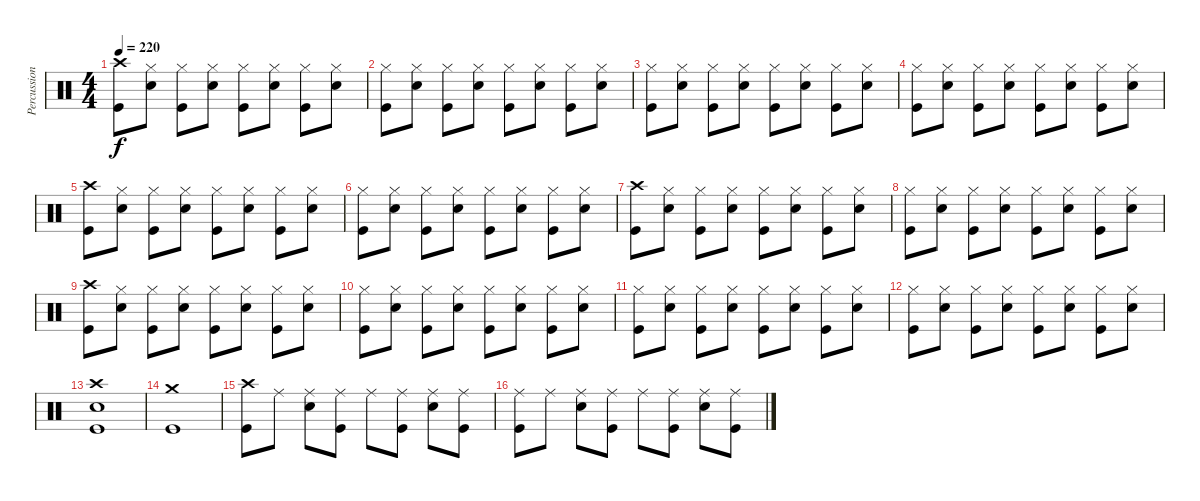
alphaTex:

\track ("Percussions" "Percussion") {instrument percussion}
\staff {score}
\articulation defaults
\ts (4 4)
\tempo 220
\clef neutral
\ks c
("Crash high (hit)" "Kick (hit)").8{dy f} ("Hi-Hat (closed)" "Electric Snare (hit)").8 ("Hi-Hat (closed)" "Kick (hit)").8 ("Hi-Hat (closed)" "Electric Snare (hit)").8 ("Hi-Hat (closed)" "Kick (hit)").8 ("Hi-Hat (closed)" "Electric Snare (hit)").8 ("Hi-Hat (closed)" "Kick (hit)").8 ("Hi-Hat (closed)" "Electric Snare (hit)").8 |
("Hi-Hat (closed)" "Kick (hit)").8 ("Hi-Hat (closed)" "Electric Snare (hit)").8 ("Hi-Hat (closed)" "Kick (hit)").8 ("Hi-Hat (closed)" "Electric Snare (hit)").8 ("Hi-Hat (closed)" "Kick (hit)").8 ("Hi-Hat (closed)" "Electric Snare (hit)").8 ("Hi-Hat (closed)" "Kick (hit)").8 ("Hi-Hat (closed)" "Electric Snare (hit)").8 |
("Hi-Hat (closed)" "Kick (hit)").8 ("Hi-Hat (closed)" "Electric Snare (hit)").8 ("Hi-Hat (closed)" "Kick (hit)").8 ("Hi-Hat (closed)" "Electric Snare (hit)").8 ("Hi-Hat (closed)" "Kick (hit)").8 ("Hi-Hat (closed)" "Electric Snare (hit)").8 ("Hi-Hat (closed)" "Kick (hit)").8 ("Hi-Hat (closed)" "Electric Snare (hit)").8 |
("Hi-Hat (closed)" "Kick (hit)").8 ("Hi-Hat (closed)" "Electric Snare (hit)").8 ("Hi-Hat (closed)" "Kick (hit)").8 ("Hi-Hat (closed)" "Electric Snare (hit)").8 ("Hi-Hat (closed)" "Kick (hit)").8 ("Hi-Hat (closed)" "Electric Snare (hit)").8 ("Hi-Hat (closed)" "Kick (hit)").8 ("Hi-Hat (closed)" "Electric Snare (hit)").8 |
("Crash high (hit)" "Kick (hit)").8 ("Hi-Hat (closed)" "Electric Snare (hit)").8 ("Hi-Hat (closed)" "Kick (hit)").8 ("Hi-Hat (closed)" "Electric Snare (hit)").8 ("Hi-Hat (closed)" "Kick (hit)").8 ("Hi-Hat (closed)" "Electric Snare (hit)").8 ("Hi-Hat (closed)" "Kick (hit)").8 ("Hi-Hat (closed)" "Electric Snare (hit)").8 |
("Hi-Hat (closed)" "Kick (hit)").8 ("Hi-Hat (closed)" "Electric Snare (hit)").8 ("Hi-Hat (closed)" "Kick (hit)").8 ("Hi-Hat (closed)" "Electric Snare (hit)").8 ("Hi-Hat (closed)" "Kick (hit)").8 ("Hi-Hat (closed)" "Electric Snare (hit)").8 ("Hi-Hat (closed)" "Kick (hit)").8 ("Hi-Hat (closed)" "Electric Snare (hit)").8 |
("Crash high (hit)" "Kick (hit)").8 ("Hi-Hat (closed)" "Electric Snare (hit)").8 ("Hi-Hat (closed)" "Kick (hit)").8 ("Hi-Hat (closed)" "Electric Snare (hit)").8 ("Hi-Hat (closed)" "Kick (hit)").8 ("Hi-Hat (closed)" "Electric Snare (hit)").8 ("Hi-Hat (closed)" "Kick (hit)").8 ("Hi-Hat (closed)" "Electric Snare (hit)").8 |
("Hi-Hat (closed)" "Kick (hit)").8 ("Hi-Hat (closed)" "Electric Snare (hit)").8 ("Hi-Hat (closed)" "Kick (hit)").8 ("Hi-Hat (closed)" "Electric Snare (hit)").8 ("Hi-Hat (closed)" "Kick (hit)").8 ("Hi-Hat (closed)" "Electric Snare (hit)").8 ("Hi-Hat (closed)" "Kick (hit)").8 ("Hi-Hat (closed)" "Electric Snare (hit)").8 |
("Crash high (hit)" "Kick (hit)").8 ("Hi-Hat (closed)" "Electric Snare (hit)").8 ("Hi-Hat (closed)" "Kick (hit)").8 ("Hi-Hat (closed)" "Electric Snare (hit)").8 ("Hi-Hat (closed)" "Kick (hit)").8 ("Hi-Hat (closed)" "Electric Snare (hit)").8 ("Hi-Hat (closed)" "Kick (hit)").8 ("Hi-Hat (closed)" "Electric Snare (hit)").8 |
("Hi-Hat (closed)" "Kick (hit)").8 ("Hi-Hat (closed)" "Electric Snare (hit)").8 ("Hi-Hat (closed)" "Kick (hit)").8 ("Hi-Hat (closed)" "Electric Snare (hit)").8 ("Hi-Hat (closed)" "Kick (hit)").8 ("Hi-Hat (closed)" "Electric Snare (hit)").8 ("Hi-Hat (closed)" "Kick (hit)").8 ("Hi-Hat (closed)" "Electric Snare (hit)").8 |
("Hi-Hat (closed)" "Kick (hit)").8 ("Hi-Hat (closed)" "Electric Snare (hit)").8 ("Hi-Hat (closed)" "Kick (hit)").8 ("Hi-Hat (closed)" "Electric Snare (hit)").8 ("Hi-Hat (closed)" "Kick (hit)").8 ("Hi-Hat (closed)" "Electric Snare (hit)").8 ("Hi-Hat (closed)" "Kick (hit)").8 ("Hi-Hat (closed)" "Electric Snare (hit)").8 |
("Hi-Hat (closed)" "Kick (hit)").8 ("Hi-Hat (closed)" "Electric Snare (hit)").8 ("Hi-Hat (closed)" "Kick (hit)").8 ("Hi-Hat (closed)" "Electric Snare (hit)").8 ("Hi-Hat (closed)" "Kick (hit)").8 ("Hi-Hat (closed)" "Electric Snare (hit)").8 ("Hi-Hat (closed)" "Kick (hit)").8 ("Hi-Hat (closed)" "Electric Snare (hit)").8 |
("Crash high (hit)" "Electric Snare (hit)" "Kick (hit)").1 |
("Crash medium (hit)" "Kick (hit)").1 |
("Crash high (hit)" "Kick (hit)").8 "Ride (middle)".8 ("Ride (middle)" "Electric Snare (hit)").8 ("Ride (middle)" "Kick (hit)").8 "Ride (middle)".8 ("Ride (middle)" "Kick (hit)").8 ("Ride (middle)" "Electric Snare (hit)").8 ("Ride (middle)" "Kick (hit)").8 |
("Ride (middle)" "Kick (hit)").8 "Ride (middle)".8 ("Ride (middle)" "Electric Snare (hit)").8 ("Ride (middle)" "Kick (hit)").8 "Ride (middle)".8 ("Ride (middle)" "Kick (hit)").8 ("Ride (middle)" "Electric Snare (hit)").8 ("Ride (middle)" "Kick (hit)").8
